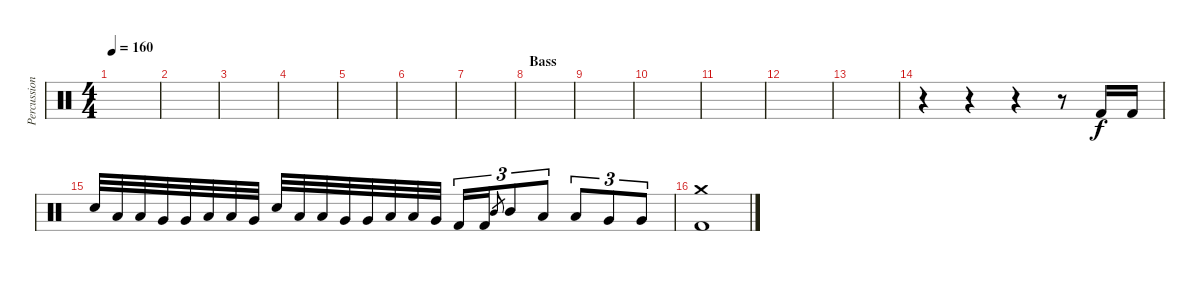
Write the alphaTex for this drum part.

\track ("Percussion" "Percussion") {instrument percussion}
\staff {score}
\articulation defaults
\ts (4 4)
\tempo 160
\clef neutral
\ks c
|
|
|
|
|
|
|
\section ("" "Bass")
|
|
|
|
|
|
r.4 r.4 r.4 r.8 "Kick (hit) 2".16 "Kick (hit) 2".16 |
"Electric Snare (hit)".32 "Low Tom (hit)".32 "Low Tom (hit)".32 "Very Low Tom (hit)".32 "Very Low Tom (hit)".32 "Low Tom (hit)".32 "Low Tom (hit)".32 "Very Low Tom (hit)".32 "Electric Snare (hit)".32 "Low Tom (hit)".32 "Low Tom (hit)".32 "Very Low Tom (hit)".32 "Very Low Tom (hit)".32 "Low Tom (hit)".32 "Low Tom (hit)".32 "Very Low Tom (hit)".32 "Kick (hit) 2".16{tu (3 2)} "Kick (hit) 2".16{tu (3 2)} "Mid Tom (hit)".8{gr} "Mid Tom (hit)".8{tu (3 2)} "Low Tom (hit)".8{tu (3 2)} "Low Tom (hit)".8{tu (3 2)} "Very Low Tom (hit)".8{tu (3 2)} "Very Low Tom (hit)".8{tu (3 2)} |
("Crash medium (hit)" "Kick (hit) 2").1
